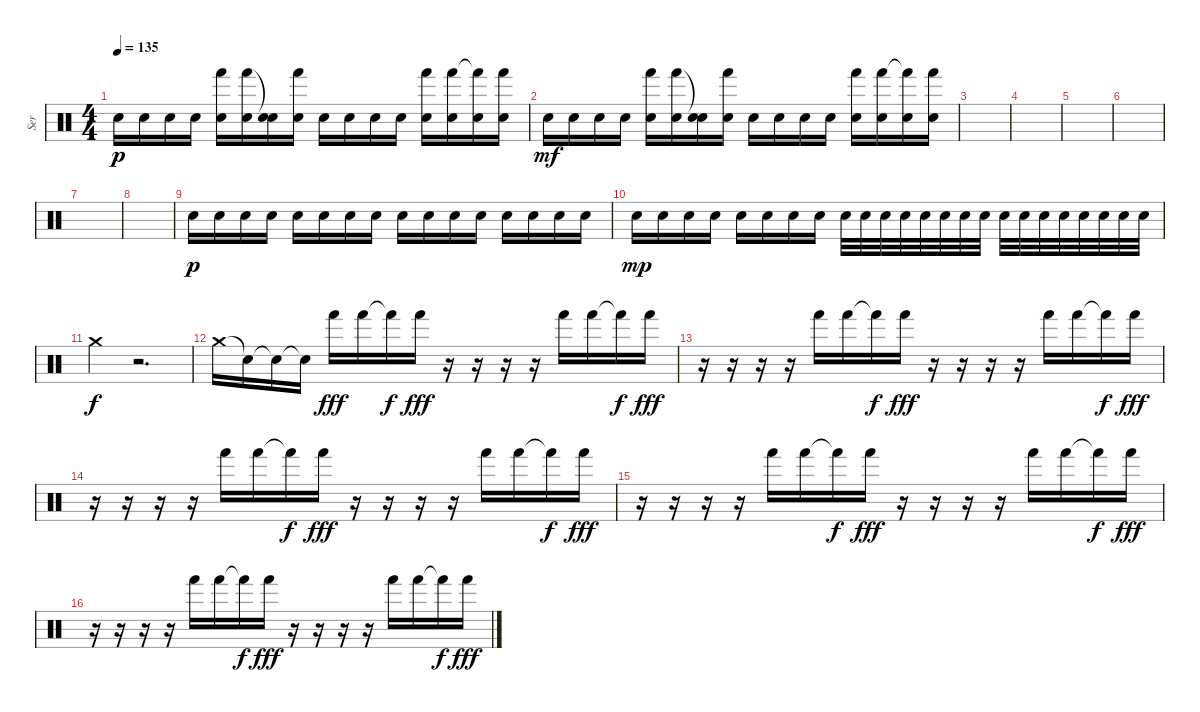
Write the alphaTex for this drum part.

\track ("Ser" "Ser") {instrument percussion}
\staff {score}
\articulation defaults
\ts (4 4)
\tempo 135
\clef neutral
\ks c "Electric Snare (hit)".16{dy p} "Electric Snare (hit)".16 "Electric Snare (hit)".16 "Electric Snare (hit)".16
("Hand (hit)" "Electric Snare (hit)").16 ("Hand (hit)" "Electric Snare (hit)").16 ("Snare (hit)"{t} "Electric Snare (hit)").16 ("Hand (hit)" "Electric Snare (hit)").16 "Electric Snare (hit)".16 "Electric Snare (hit)".16 "Electric Snare (hit)".16 "Electric Snare (hit)".16 ("Hand (hit)" "Electric Snare (hit)").16 ("Hand (hit)" "Electric Snare (hit)").16 ("Hand (hit)"{t} "Electric Snare (hit)").16 ("Hand (hit)" "Electric Snare (hit)").16 |
"Electric Snare (hit)".16{dy mf} "Electric Snare (hit)".16 "Electric Snare (hit)".16 "Electric Snare (hit)".16 ("Hand (hit)" "Electric Snare (hit)").16 ("Hand (hit)" "Electric Snare (hit)").16 ("Snare (hit)"{t} "Electric Snare (hit)").16 ("Hand (hit)" "Electric Snare (hit)").16 "Electric Snare (hit)".16 "Electric Snare (hit)".16 "Electric Snare (hit)".16 "Electric Snare (hit)".16 ("Hand (hit)" "Electric Snare (hit)").16 ("Hand (hit)" "Electric Snare (hit)").16 ("Hand (hit)"{t} "Electric Snare (hit)").16 ("Hand (hit)" "Electric Snare (hit)").16 |
|
|
|
|
|
|
"Electric Snare (hit)".16{dy p} "Electric Snare (hit)".16 "Electric Snare (hit)".16 "Electric Snare (hit)".16 "Electric Snare (hit)".16 "Electric Snare (hit)".16 "Electric Snare (hit)".16 "Electric Snare (hit)".16 "Electric Snare (hit)".16 "Electric Snare (hit)".16 "Electric Snare (hit)".16 "Electric Snare (hit)".16 "Electric Snare (hit)".16 "Electric Snare (hit)".16 "Electric Snare (hit)".16 "Electric Snare (hit)".16 |
"Electric Snare (hit)".16{dy mp} "Electric Snare (hit)".16 "Electric Snare (hit)".16 "Electric Snare (hit)".16 "Electric Snare (hit)".16 "Electric Snare (hit)".16 "Electric Snare (hit)".16 "Electric Snare (hit)".16 "Electric Snare (hit)".32 "Electric Snare (hit)".32 "Electric Snare (hit)".32 "Electric Snare (hit)".32 "Electric Snare (hit)".32 "Electric Snare (hit)".32 "Electric Snare (hit)".32 "Electric Snare (hit)".32 "Electric Snare (hit)".32 "Electric Snare (hit)".32 "Electric Snare (hit)".32 "Electric Snare (hit)".32 "Electric Snare (hit)".32 "Electric Snare (hit)".32 "Electric Snare (hit)".32 "Electric Snare (hit)".32 |
"Crash medium (hit)".4{dy f} r.2{d} |
"Crash medium (hit)".16 "Snare (hit)"{t}.16 "Snare (hit)"{t}.16 "Snare (hit)"{t}.16 "Hand (hit)".16{dy fff} "Hand (hit)".16 "Hand (hit)"{t}.16{dy f} "Hand (hit)".16{dy fff} r.16 r.16 r.16 r.16 "Hand (hit)".16 "Hand (hit)".16 "Hand (hit)"{t}.16{dy f} "Hand (hit)".16{dy fff} |
r.16 r.16 r.16 r.16 "Hand (hit)".16 "Hand (hit)".16 "Hand (hit)"{t}.16{dy f} "Hand (hit)".16{dy fff} r.16 r.16 r.16 r.16 "Hand (hit)".16 "Hand (hit)".16 "Hand (hit)"{t}.16{dy f} "Hand (hit)".16{dy fff} |
r.16 r.16 r.16 r.16 "Hand (hit)".16 "Hand (hit)".16 "Hand (hit)"{t}.16{dy f} "Hand (hit)".16{dy fff} r.16 r.16 r.16 r.16 "Hand (hit)".16 "Hand (hit)".16 "Hand (hit)"{t}.16{dy f} "Hand (hit)".16{dy fff} |
r.16 r.16 r.16 r.16 "Hand (hit)".16 "Hand (hit)".16 "Hand (hit)"{t}.16{dy f} "Hand (hit)".16{dy fff} r.16 r.16 r.16 r.16 "Hand (hit)".16 "Hand (hit)".16 "Hand (hit)"{t}.16{dy f} "Hand (hit)".16{dy fff} |
r.16 r.16 r.16 r.16 "Hand (hit)".16 "Hand (hit)".16 "Hand (hit)"{t}.16{dy f} "Hand (hit)".16{dy fff} r.16 r.16 r.16 r.16 "Hand (hit)".16 "Hand (hit)".16 "Hand (hit)"{t}.16{dy f} "Hand (hit)".16{dy fff}
